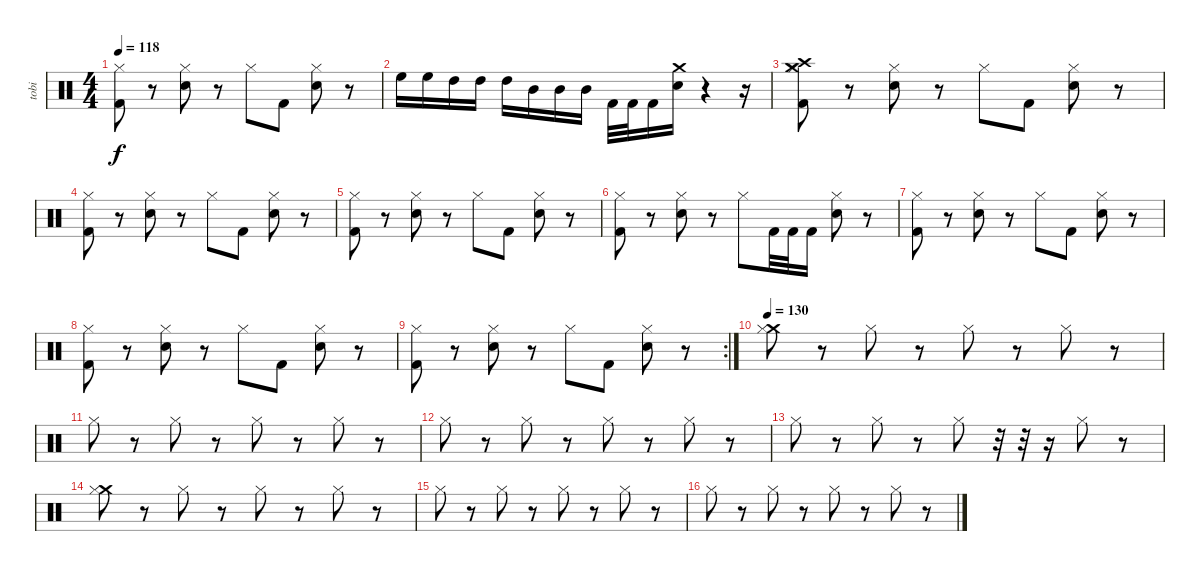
\track ("tobi" "tobi") {instrument percussion}
\staff {score}
\articulation defaults
\ts (4 4)
\tempo 118
\clef neutral
\ks c
("Hi-Hat (closed)" "Kick (hit) 2").8{dy f} r.8 ("Hi-Hat (closed)" "Snare (hit) 2").8 r.8 "Hi-Hat (closed)".8 "Kick (hit) 2".8 ("Hi-Hat (closed)" "Snare (hit) 2").8 r.8 |
"High Floor Tom (hit)".16 "High Floor Tom (hit)".16 "High Tom (hit)".16 "High Tom (hit)".16 "High Tom (hit)".16 "Mid Tom (hit)".16 "Mid Tom (hit)".16 "Mid Tom (hit)".16 "Kick (hit) 2".32 "Kick (hit) 2".32 "Kick (hit) 2".16 ("Crash medium (hit)" "Snare (hit) 2").16 r.4 r.16 |
("Crash medium (hit)" "Hi-Hat (closed)" "Crash high (hit)" "Kick (hit) 2").8 r.8 ("Hi-Hat (closed)" "Snare (hit) 2").8 r.8 "Hi-Hat (closed)".8 "Kick (hit) 2".8 ("Hi-Hat (closed)" "Snare (hit) 2").8 r.8 |
("Hi-Hat (closed)" "Kick (hit) 2").8 r.8 ("Hi-Hat (closed)" "Snare (hit) 2").8 r.8 "Hi-Hat (closed)".8 "Kick (hit) 2".8 ("Hi-Hat (closed)" "Snare (hit) 2").8 r.8 |
("Hi-Hat (closed)" "Kick (hit) 2").8 r.8 ("Hi-Hat (closed)" "Snare (hit) 2").8 r.8 "Hi-Hat (closed)".8 "Kick (hit) 2".8 ("Hi-Hat (closed)" "Snare (hit) 2").8 r.8 |
("Hi-Hat (closed)" "Kick (hit) 2").8 r.8 ("Hi-Hat (closed)" "Snare (hit) 2").8 r.8 "Hi-Hat (closed)".8 "Kick (hit) 2".32 "Kick (hit) 2".32 "Kick (hit) 2".16 ("Hi-Hat (closed)" "Snare (hit) 2").8 r.8 |
("Hi-Hat (closed)" "Kick (hit) 2").8 r.8 ("Hi-Hat (closed)" "Snare (hit) 2").8 r.8 "Hi-Hat (closed)".8 "Kick (hit) 2".8 ("Hi-Hat (closed)" "Snare (hit) 2").8 r.8 |
("Hi-Hat (closed)" "Kick (hit) 2").8 r.8 ("Hi-Hat (closed)" "Snare (hit) 2").8 r.8 "Hi-Hat (closed)".8 "Kick (hit) 2".8 ("Hi-Hat (closed)" "Snare (hit) 2").8 r.8 |
\rc 2
("Hi-Hat (closed)" "Kick (hit) 2").8 r.8 ("Hi-Hat (closed)" "Snare (hit) 2").8 r.8 "Hi-Hat (closed)".8 "Kick (hit) 2".8 ("Hi-Hat (closed)" "Snare (hit) 2").8 r.8 |
\tempo 130
("Crash medium (hit)" "Hi-Hat (closed)").8 r.8 "Hi-Hat (closed)".8 r.8 "Hi-Hat (closed)".8 r.8 "Hi-Hat (closed)".8 r.8 |
"Hi-Hat (closed)".8 r.8 "Hi-Hat (closed)".8 r.8 "Hi-Hat (closed)".8 r.8 "Hi-Hat (closed)".8 r.8 |
"Hi-Hat (closed)".8 r.8 "Hi-Hat (closed)".8 r.8 "Hi-Hat (closed)".8 r.8 "Hi-Hat (closed)".8 r.8 |
"Hi-Hat (closed)".8 r.8 "Hi-Hat (closed)".8 r.8 "Hi-Hat (closed)".8 r.32 r.32 r.16 "Hi-Hat (closed)".8 r.8 |
("Crash medium (hit)" "Hi-Hat (closed)").8 r.8 "Hi-Hat (closed)".8 r.8 "Hi-Hat (closed)".8 r.8 "Hi-Hat (closed)".8 r.8 |
"Hi-Hat (closed)".8 r.8 "Hi-Hat (closed)".8 r.8 "Hi-Hat (closed)".8 r.8 "Hi-Hat (closed)".8 r.8 |
"Hi-Hat (closed)".8 r.8 "Hi-Hat (closed)".8 r.8 "Hi-Hat (closed)".8 r.8 "Hi-Hat (closed)".8 r.8
